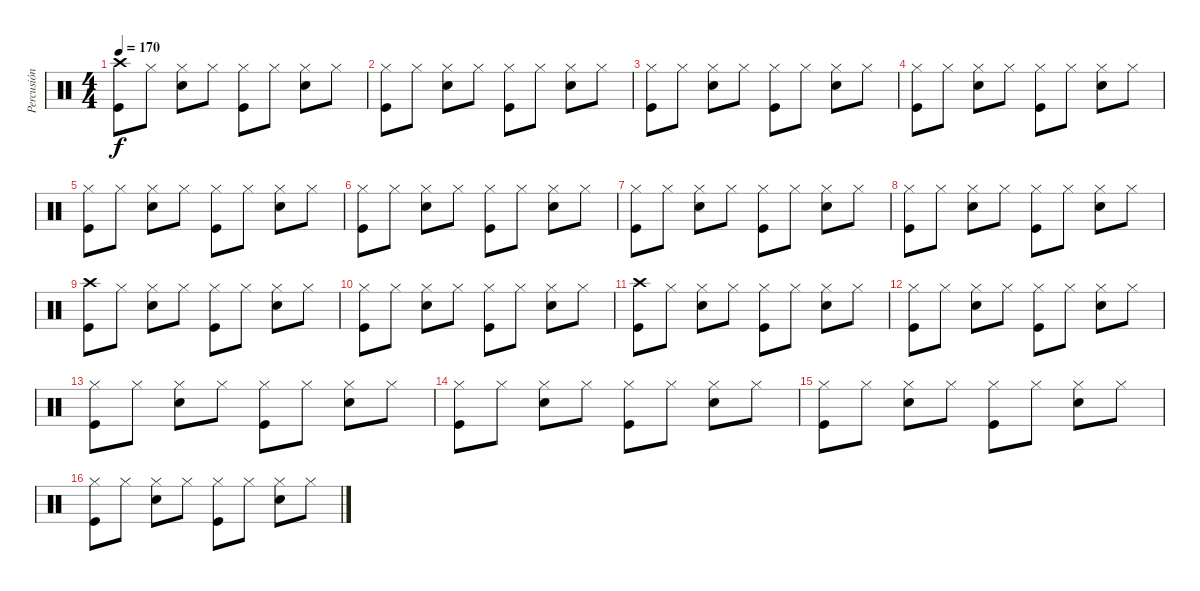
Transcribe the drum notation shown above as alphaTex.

\track ("Percusión" "Percusión") {instrument percussion}
\staff {score}
\articulation defaults
\ts (4 4)
\tempo 170
\clef neutral
\ks c
("Kick (hit)" "Crash high (hit)").8{dy f} "Hi-Hat (closed)".8 ("Snare (hit) 2" "Hi-Hat (closed)").8 "Hi-Hat (closed)".8 ("Kick (hit)" "Hi-Hat (closed)").8 "Hi-Hat (closed)".8 ("Snare (hit) 2" "Hi-Hat (closed)").8 "Hi-Hat (closed)".8 |
("Kick (hit)" "Hi-Hat (closed)").8 "Hi-Hat (closed)".8 ("Snare (hit) 2" "Hi-Hat (closed)").8 "Hi-Hat (closed)".8 ("Kick (hit)" "Hi-Hat (closed)").8 "Hi-Hat (closed)".8 ("Snare (hit) 2" "Hi-Hat (closed)").8 "Hi-Hat (closed)".8 |
("Kick (hit)" "Hi-Hat (closed)").8 "Hi-Hat (closed)".8 ("Snare (hit) 2" "Hi-Hat (closed)").8 "Hi-Hat (closed)".8 ("Kick (hit)" "Hi-Hat (closed)").8 "Hi-Hat (closed)".8 ("Snare (hit) 2" "Hi-Hat (closed)").8 "Hi-Hat (closed)".8 |
("Kick (hit)" "Hi-Hat (closed)").8 "Hi-Hat (closed)".8 ("Snare (hit) 2" "Hi-Hat (closed)").8 "Hi-Hat (closed)".8 ("Kick (hit)" "Hi-Hat (closed)").8 "Hi-Hat (closed)".8 ("Snare (hit) 2" "Hi-Hat (closed)").8 "Hi-Hat (closed)".8 |
("Kick (hit)" "Hi-Hat (closed)").8 "Hi-Hat (closed)".8 ("Snare (hit) 2" "Hi-Hat (closed)").8 "Hi-Hat (closed)".8 ("Kick (hit)" "Hi-Hat (closed)").8 "Hi-Hat (closed)".8 ("Snare (hit) 2" "Hi-Hat (closed)").8 "Hi-Hat (closed)".8 |
("Kick (hit)" "Hi-Hat (closed)").8 "Hi-Hat (closed)".8 ("Snare (hit) 2" "Hi-Hat (closed)").8 "Hi-Hat (closed)".8 ("Kick (hit)" "Hi-Hat (closed)").8 "Hi-Hat (closed)".8 ("Snare (hit) 2" "Hi-Hat (closed)").8 "Hi-Hat (closed)".8 |
("Kick (hit)" "Hi-Hat (closed)").8 "Hi-Hat (closed)".8 ("Snare (hit) 2" "Hi-Hat (closed)").8 "Hi-Hat (closed)".8 ("Kick (hit)" "Hi-Hat (closed)").8 "Hi-Hat (closed)".8 ("Snare (hit) 2" "Hi-Hat (closed)").8 "Hi-Hat (closed)".8 |
("Kick (hit)" "Hi-Hat (closed)").8 "Hi-Hat (closed)".8 ("Snare (hit) 2" "Hi-Hat (closed)").8 "Hi-Hat (closed)".8 ("Kick (hit)" "Hi-Hat (closed)").8 "Hi-Hat (closed)".8 ("Snare (hit) 2" "Hi-Hat (closed)").8 "Hi-Hat (closed)".8 |
("Kick (hit)" "Crash high (hit)").8 "Hi-Hat (closed)".8 ("Snare (hit) 2" "Hi-Hat (closed)").8 "Hi-Hat (closed)".8 ("Kick (hit)" "Hi-Hat (closed)").8 "Hi-Hat (closed)".8 ("Snare (hit) 2" "Hi-Hat (closed)").8 "Hi-Hat (closed)".8 |
("Kick (hit)" "Hi-Hat (closed)").8 "Hi-Hat (closed)".8 ("Snare (hit) 2" "Hi-Hat (closed)").8 "Hi-Hat (closed)".8 ("Kick (hit)" "Hi-Hat (closed)").8 "Hi-Hat (closed)".8 ("Snare (hit) 2" "Hi-Hat (closed)").8 "Hi-Hat (closed)".8 |
("Kick (hit)" "Crash high (hit)").8 "Hi-Hat (closed)".8 ("Snare (hit) 2" "Hi-Hat (closed)").8 "Hi-Hat (closed)".8 ("Kick (hit)" "Hi-Hat (closed)").8 "Hi-Hat (closed)".8 ("Snare (hit) 2" "Hi-Hat (closed)").8 "Hi-Hat (closed)".8 |
("Kick (hit)" "Hi-Hat (closed)").8 "Hi-Hat (closed)".8 ("Snare (hit) 2" "Hi-Hat (closed)").8 "Hi-Hat (closed)".8 ("Kick (hit)" "Hi-Hat (closed)").8 "Hi-Hat (closed)".8 ("Snare (hit) 2" "Hi-Hat (closed)").8 "Hi-Hat (closed)".8 |
("Kick (hit)" "Hi-Hat (closed)").8 "Hi-Hat (closed)".8 ("Snare (hit) 2" "Hi-Hat (closed)").8 "Hi-Hat (closed)".8 ("Kick (hit)" "Hi-Hat (closed)").8 "Hi-Hat (closed)".8 ("Snare (hit) 2" "Hi-Hat (closed)").8 "Hi-Hat (closed)".8 |
("Kick (hit)" "Hi-Hat (closed)").8 "Hi-Hat (closed)".8 ("Snare (hit) 2" "Hi-Hat (closed)").8 "Hi-Hat (closed)".8 ("Kick (hit)" "Hi-Hat (closed)").8 "Hi-Hat (closed)".8 ("Snare (hit) 2" "Hi-Hat (closed)").8 "Hi-Hat (closed)".8 |
("Kick (hit)" "Hi-Hat (closed)").8 "Hi-Hat (closed)".8 ("Snare (hit) 2" "Hi-Hat (closed)").8 "Hi-Hat (closed)".8 ("Kick (hit)" "Hi-Hat (closed)").8 "Hi-Hat (closed)".8 ("Snare (hit) 2" "Hi-Hat (closed)").8 "Hi-Hat (closed)".8 |
("Kick (hit)" "Hi-Hat (closed)").8 "Hi-Hat (closed)".8 ("Snare (hit) 2" "Hi-Hat (closed)").8 "Hi-Hat (closed)".8 ("Kick (hit)" "Hi-Hat (closed)").8 "Hi-Hat (closed)".8 ("Snare (hit) 2" "Hi-Hat (closed)").8 "Hi-Hat (closed)".8
